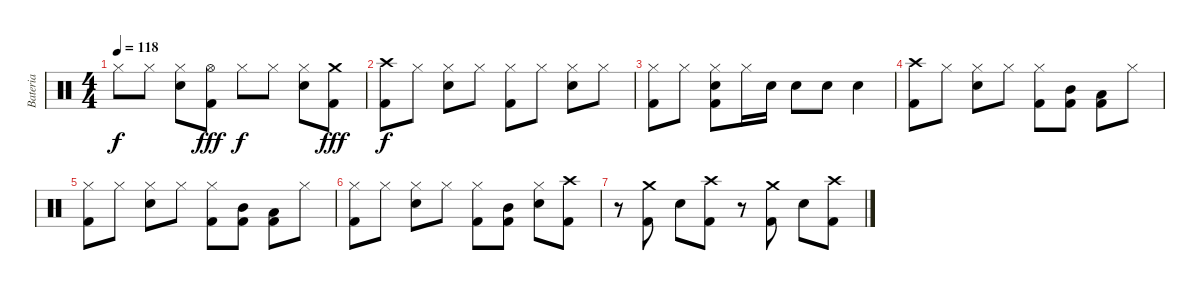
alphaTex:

\track ("Bateria" "Bateria") {instrument percussion}
\staff {score}
\articulation defaults
\ts (4 4)
\tempo 118
\clef neutral
\ks c "Hi-Hat (closed)".8{dy f} "Hi-Hat (closed)".8
("Electric Snare (hit)" "Hi-Hat (closed)").8 ("Kick (hit) 2" "Hi-Hat (open)").8{dy fff} "Hi-Hat (closed)".8{dy f} "Hi-Hat (closed)".8 ("Electric Snare (hit)" "Hi-Hat (closed)").8 ("Kick (hit) 2" "Crash medium (hit)").8{dy fff} |
("Crash high (hit)" "Kick (hit) 2").8{dy f} "Hi-Hat (closed)".8 ("Electric Snare (hit)" "Hi-Hat (closed)").8 "Hi-Hat (closed)".8 ("Kick (hit) 2" "Hi-Hat (closed)").8 "Hi-Hat (closed)".8 ("Electric Snare (hit)" "Hi-Hat (closed)").8 "Hi-Hat (closed)".8 |
("Kick (hit) 2" "Hi-Hat (closed)").8 "Hi-Hat (closed)".8 ("Electric Snare (hit)" "Hi-Hat (closed)" "Kick (hit) 2").8 "Hi-Hat (closed)".16 "Electric Snare (hit)".16 "Electric Snare (hit)".8 "Electric Snare (hit)".8 "Electric Snare (hit)".4 |
("Kick (hit) 2" "Crash high (hit)").8 "Hi-Hat (closed)".8 ("Hi-Hat (closed)" "Electric Snare (hit)").8 "Hi-Hat (closed)".8 ("Hi-Hat (closed)" "Kick (hit) 2").8 ("Mid Tom (hit)" "Kick (hit) 2").8 ("Low Tom (hit)" "Kick (hit) 2").8 "Hi-Hat (closed)".8 |
("Hi-Hat (closed)" "Kick (hit) 2").8 "Hi-Hat (closed)".8 ("Hi-Hat (closed)" "Electric Snare (hit)").8 "Hi-Hat (closed)".8 ("Hi-Hat (closed)" "Kick (hit) 2").8 ("Mid Tom (hit)" "Kick (hit) 2").8 ("Low Tom (hit)" "Kick (hit) 2").8 "Hi-Hat (closed)".8 |
("Hi-Hat (closed)" "Kick (hit) 2").8 "Hi-Hat (closed)".8 ("Hi-Hat (closed)" "Electric Snare (hit)").8 "Hi-Hat (closed)".8 ("Hi-Hat (closed)" "Kick (hit) 2").8 ("Mid Tom (hit)" "Kick (hit) 2").8 ("Hi-Hat (closed)" "Electric Snare (hit)").8 ("Crash high (hit)" "Kick (hit) 2").8 |
r.8 ("Crash medium (hit)" "Kick (hit) 2").8 "Electric Snare (hit)".8 ("Crash high (hit)" "Kick (hit) 2").8 r.8 ("Crash medium (hit)" "Kick (hit) 2").8 "Electric Snare (hit)".8 ("Kick (hit) 2" "Crash high (hit)").8
